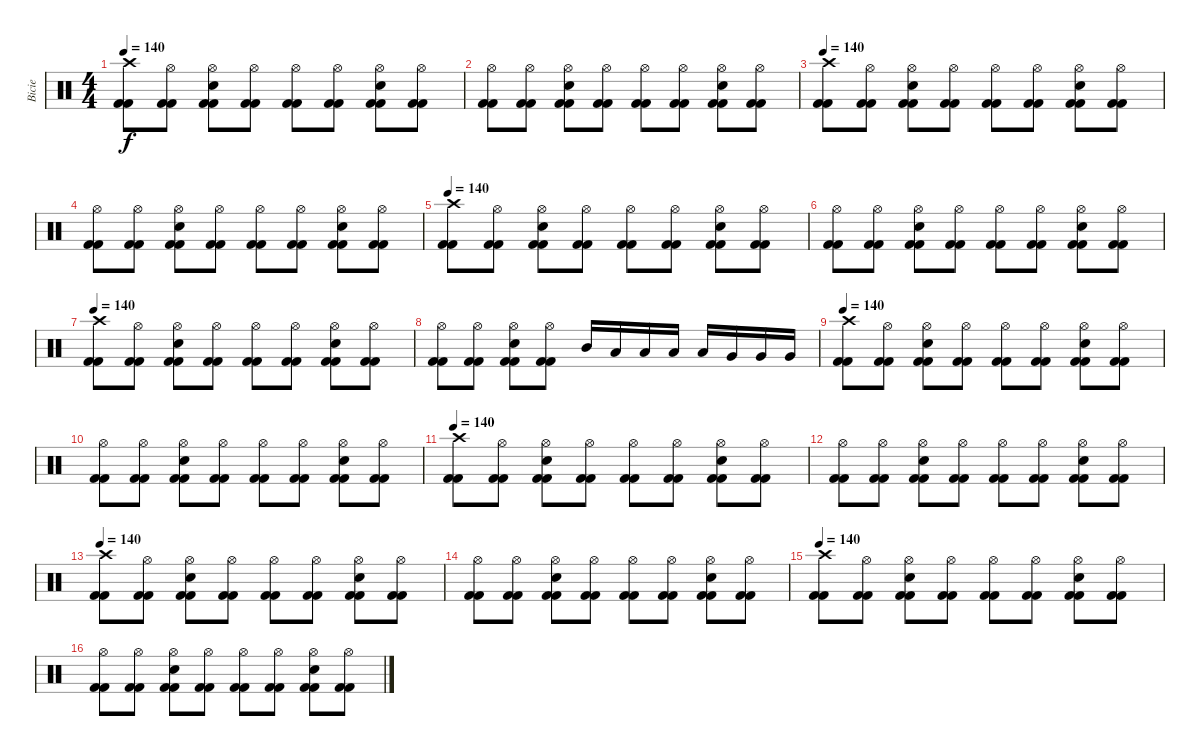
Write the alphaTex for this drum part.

\track ("Bicie" "Bicie") {instrument percussion}
\staff {score}
\articulation defaults
\ts (4 4)
\tempo 140
\clef neutral
\ks c
("Kick (hit) 2" "Crash high (hit)" "Kick (hit) 2").8{dy f} ("Kick (hit) 2" "Hi-Hat (open)" "Kick (hit) 2").8 ("Kick (hit) 2" "Hi-Hat (open)" "Electric Snare (hit)" "Kick (hit) 2").8 ("Kick (hit) 2" "Hi-Hat (open)" "Kick (hit) 2").8 ("Kick (hit) 2" "Hi-Hat (open)" "Kick (hit) 2").8 ("Kick (hit) 2" "Hi-Hat (open)" "Kick (hit) 2").8 ("Kick (hit) 2" "Hi-Hat (open)" "Electric Snare (hit)" "Kick (hit) 2").8 ("Kick (hit) 2" "Hi-Hat (open)" "Kick (hit) 2").8 |
("Kick (hit) 2" "Hi-Hat (open)" "Kick (hit) 2").8 ("Kick (hit) 2" "Hi-Hat (open)" "Kick (hit) 2").8 ("Kick (hit) 2" "Hi-Hat (open)" "Electric Snare (hit)" "Kick (hit) 2").8 ("Kick (hit) 2" "Hi-Hat (open)" "Kick (hit) 2").8 ("Kick (hit) 2" "Hi-Hat (open)" "Kick (hit) 2").8 ("Kick (hit) 2" "Hi-Hat (open)" "Kick (hit) 2").8 ("Kick (hit) 2" "Hi-Hat (open)" "Electric Snare (hit)" "Kick (hit) 2").8 ("Kick (hit) 2" "Hi-Hat (open)" "Kick (hit) 2").8 |
\tempo 140
("Kick (hit) 2" "Crash high (hit)" "Kick (hit) 2").8 ("Kick (hit) 2" "Hi-Hat (open)" "Kick (hit) 2").8 ("Kick (hit) 2" "Hi-Hat (open)" "Electric Snare (hit)" "Kick (hit) 2").8 ("Kick (hit) 2" "Hi-Hat (open)" "Kick (hit) 2").8 ("Kick (hit) 2" "Hi-Hat (open)" "Kick (hit) 2").8 ("Kick (hit) 2" "Hi-Hat (open)" "Kick (hit) 2").8 ("Kick (hit) 2" "Hi-Hat (open)" "Electric Snare (hit)" "Kick (hit) 2").8 ("Kick (hit) 2" "Hi-Hat (open)" "Kick (hit) 2").8 |
("Kick (hit) 2" "Hi-Hat (open)" "Kick (hit) 2").8 ("Kick (hit) 2" "Hi-Hat (open)" "Kick (hit) 2").8 ("Kick (hit) 2" "Hi-Hat (open)" "Electric Snare (hit)" "Kick (hit) 2").8 ("Kick (hit) 2" "Hi-Hat (open)" "Kick (hit) 2").8 ("Kick (hit) 2" "Hi-Hat (open)" "Kick (hit) 2").8 ("Kick (hit) 2" "Hi-Hat (open)" "Kick (hit) 2").8 ("Kick (hit) 2" "Hi-Hat (open)" "Electric Snare (hit)" "Kick (hit) 2").8 ("Kick (hit) 2" "Hi-Hat (open)" "Kick (hit) 2").8 |
\tempo 140
("Kick (hit) 2" "Crash high (hit)" "Kick (hit) 2").8 ("Kick (hit) 2" "Hi-Hat (open)" "Kick (hit) 2").8 ("Kick (hit) 2" "Hi-Hat (open)" "Electric Snare (hit)" "Kick (hit) 2").8 ("Kick (hit) 2" "Hi-Hat (open)" "Kick (hit) 2").8 ("Kick (hit) 2" "Hi-Hat (open)" "Kick (hit) 2").8 ("Kick (hit) 2" "Hi-Hat (open)" "Kick (hit) 2").8 ("Kick (hit) 2" "Hi-Hat (open)" "Electric Snare (hit)" "Kick (hit) 2").8 ("Kick (hit) 2" "Hi-Hat (open)" "Kick (hit) 2").8 |
("Kick (hit) 2" "Hi-Hat (open)" "Kick (hit) 2").8 ("Kick (hit) 2" "Hi-Hat (open)" "Kick (hit) 2").8 ("Kick (hit) 2" "Hi-Hat (open)" "Electric Snare (hit)" "Kick (hit) 2").8 ("Kick (hit) 2" "Hi-Hat (open)" "Kick (hit) 2").8 ("Kick (hit) 2" "Hi-Hat (open)" "Kick (hit) 2").8 ("Kick (hit) 2" "Hi-Hat (open)" "Kick (hit) 2").8 ("Kick (hit) 2" "Hi-Hat (open)" "Electric Snare (hit)" "Kick (hit) 2").8 ("Kick (hit) 2" "Hi-Hat (open)" "Kick (hit) 2").8 |
\tempo 140
("Kick (hit) 2" "Crash high (hit)" "Kick (hit) 2").8 ("Kick (hit) 2" "Hi-Hat (open)" "Kick (hit) 2").8 ("Kick (hit) 2" "Hi-Hat (open)" "Electric Snare (hit)" "Kick (hit) 2").8 ("Kick (hit) 2" "Hi-Hat (open)" "Kick (hit) 2").8 ("Kick (hit) 2" "Hi-Hat (open)" "Kick (hit) 2").8 ("Kick (hit) 2" "Hi-Hat (open)" "Kick (hit) 2").8 ("Kick (hit) 2" "Hi-Hat (open)" "Electric Snare (hit)" "Kick (hit) 2").8 ("Kick (hit) 2" "Hi-Hat (open)" "Kick (hit) 2").8 |
("Kick (hit) 2" "Hi-Hat (open)" "Kick (hit) 2").8 ("Kick (hit) 2" "Hi-Hat (open)" "Kick (hit) 2").8 ("Kick (hit) 2" "Hi-Hat (open)" "Electric Snare (hit)" "Kick (hit) 2").8 ("Kick (hit) 2" "Hi-Hat (open)" "Kick (hit) 2").8 "Mid Tom (hit)".16 "Low Tom (hit)".16 "Low Tom (hit)".16 "Low Tom (hit)".16 "Low Tom (hit)".16 "Very Low Tom (hit)".16 "Very Low Tom (hit)".16 "Very Low Tom (hit)".16 |
\tempo 140
("Kick (hit) 2" "Crash high (hit)" "Kick (hit) 2").8 ("Kick (hit) 2" "Hi-Hat (open)" "Kick (hit) 2").8 ("Kick (hit) 2" "Hi-Hat (open)" "Electric Snare (hit)" "Kick (hit) 2").8 ("Kick (hit) 2" "Hi-Hat (open)" "Kick (hit) 2").8 ("Kick (hit) 2" "Hi-Hat (open)" "Kick (hit) 2").8 ("Kick (hit) 2" "Hi-Hat (open)" "Kick (hit) 2").8 ("Kick (hit) 2" "Hi-Hat (open)" "Electric Snare (hit)" "Kick (hit) 2").8 ("Kick (hit) 2" "Hi-Hat (open)" "Kick (hit) 2").8 |
("Kick (hit) 2" "Hi-Hat (open)" "Kick (hit) 2").8 ("Kick (hit) 2" "Hi-Hat (open)" "Kick (hit) 2").8 ("Kick (hit) 2" "Hi-Hat (open)" "Electric Snare (hit)" "Kick (hit) 2").8 ("Kick (hit) 2" "Hi-Hat (open)" "Kick (hit) 2").8 ("Kick (hit) 2" "Hi-Hat (open)" "Kick (hit) 2").8 ("Kick (hit) 2" "Hi-Hat (open)" "Kick (hit) 2").8 ("Kick (hit) 2" "Hi-Hat (open)" "Electric Snare (hit)" "Kick (hit) 2").8 ("Kick (hit) 2" "Hi-Hat (open)" "Kick (hit) 2").8 |
\tempo 140
("Kick (hit) 2" "Crash high (hit)" "Kick (hit) 2").8 ("Kick (hit) 2" "Hi-Hat (open)" "Kick (hit) 2").8 ("Kick (hit) 2" "Hi-Hat (open)" "Electric Snare (hit)" "Kick (hit) 2").8 ("Kick (hit) 2" "Hi-Hat (open)" "Kick (hit) 2").8 ("Kick (hit) 2" "Hi-Hat (open)" "Kick (hit) 2").8 ("Kick (hit) 2" "Hi-Hat (open)" "Kick (hit) 2").8 ("Kick (hit) 2" "Hi-Hat (open)" "Electric Snare (hit)" "Kick (hit) 2").8 ("Kick (hit) 2" "Hi-Hat (open)" "Kick (hit) 2").8 |
("Kick (hit) 2" "Hi-Hat (open)" "Kick (hit) 2").8 ("Kick (hit) 2" "Hi-Hat (open)" "Kick (hit) 2").8 ("Kick (hit) 2" "Hi-Hat (open)" "Electric Snare (hit)" "Kick (hit) 2").8 ("Kick (hit) 2" "Hi-Hat (open)" "Kick (hit) 2").8 ("Kick (hit) 2" "Hi-Hat (open)" "Kick (hit) 2").8 ("Kick (hit) 2" "Hi-Hat (open)" "Kick (hit) 2").8 ("Kick (hit) 2" "Hi-Hat (open)" "Electric Snare (hit)" "Kick (hit) 2").8 ("Kick (hit) 2" "Hi-Hat (open)" "Kick (hit) 2").8 |
\tempo 140
("Kick (hit) 2" "Crash high (hit)" "Kick (hit) 2").8 ("Kick (hit) 2" "Hi-Hat (open)" "Kick (hit) 2").8 ("Kick (hit) 2" "Hi-Hat (open)" "Electric Snare (hit)" "Kick (hit) 2").8 ("Kick (hit) 2" "Hi-Hat (open)" "Kick (hit) 2").8 ("Kick (hit) 2" "Hi-Hat (open)" "Kick (hit) 2").8 ("Kick (hit) 2" "Hi-Hat (open)" "Kick (hit) 2").8 ("Kick (hit) 2" "Hi-Hat (open)" "Electric Snare (hit)" "Kick (hit) 2").8 ("Kick (hit) 2" "Hi-Hat (open)" "Kick (hit) 2").8 |
("Kick (hit) 2" "Hi-Hat (open)" "Kick (hit) 2").8 ("Kick (hit) 2" "Hi-Hat (open)" "Kick (hit) 2").8 ("Kick (hit) 2" "Hi-Hat (open)" "Electric Snare (hit)" "Kick (hit) 2").8 ("Kick (hit) 2" "Hi-Hat (open)" "Kick (hit) 2").8 ("Kick (hit) 2" "Hi-Hat (open)" "Kick (hit) 2").8 ("Kick (hit) 2" "Hi-Hat (open)" "Kick (hit) 2").8 ("Kick (hit) 2" "Hi-Hat (open)" "Electric Snare (hit)" "Kick (hit) 2").8 ("Kick (hit) 2" "Hi-Hat (open)" "Kick (hit) 2").8 |
\tempo 140
("Kick (hit) 2" "Crash high (hit)" "Kick (hit) 2").8 ("Kick (hit) 2" "Hi-Hat (open)" "Kick (hit) 2").8 ("Kick (hit) 2" "Hi-Hat (open)" "Electric Snare (hit)" "Kick (hit) 2").8 ("Kick (hit) 2" "Hi-Hat (open)" "Kick (hit) 2").8 ("Kick (hit) 2" "Hi-Hat (open)" "Kick (hit) 2").8 ("Kick (hit) 2" "Hi-Hat (open)" "Kick (hit) 2").8 ("Kick (hit) 2" "Hi-Hat (open)" "Electric Snare (hit)" "Kick (hit) 2").8 ("Kick (hit) 2" "Hi-Hat (open)" "Kick (hit) 2").8 |
("Kick (hit) 2" "Hi-Hat (open)" "Kick (hit) 2").8 ("Kick (hit) 2" "Hi-Hat (open)" "Kick (hit) 2").8 ("Kick (hit) 2" "Hi-Hat (open)" "Electric Snare (hit)" "Kick (hit) 2").8 ("Kick (hit) 2" "Hi-Hat (open)" "Kick (hit) 2").8 ("Kick (hit) 2" "Hi-Hat (open)" "Kick (hit) 2").8 ("Kick (hit) 2" "Hi-Hat (open)" "Kick (hit) 2").8 ("Kick (hit) 2" "Hi-Hat (open)" "Electric Snare (hit)" "Kick (hit) 2").8 ("Kick (hit) 2" "Hi-Hat (open)" "Kick (hit) 2").8
